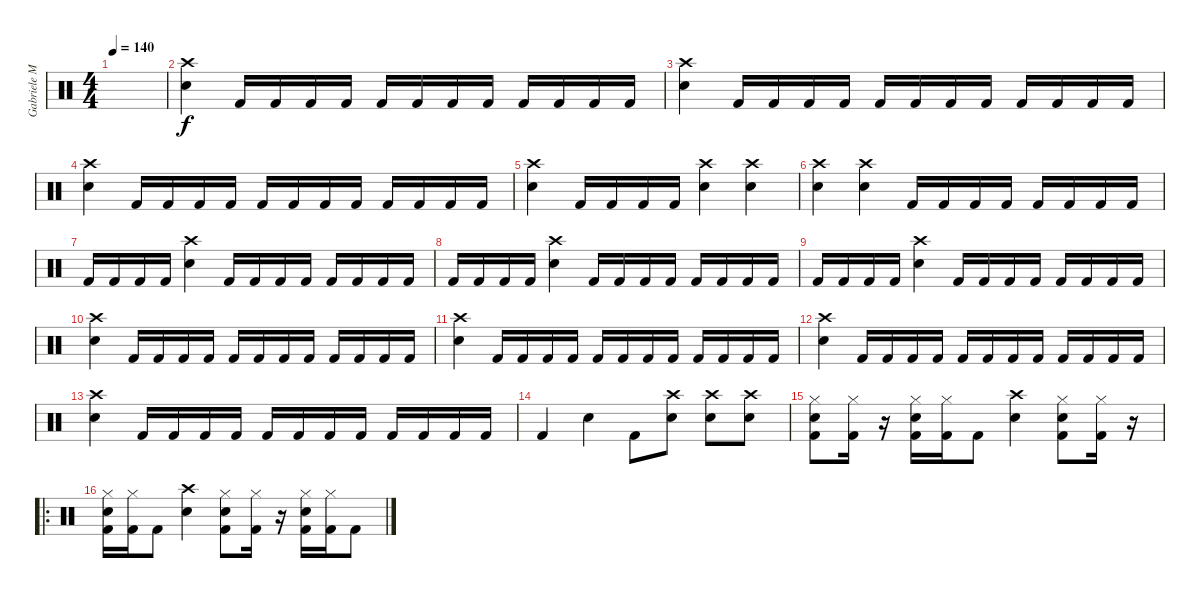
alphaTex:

\track ("Gabriele Malatesta" "Gabriele M") {instrument percussion}
\staff {score}
\articulation defaults
\ts (4 4)
\tempo 140
\clef neutral
\ks c
|
("Crash high (hit)" "Electric Snare (hit)").4 "Kick (hit) 2".16 "Kick (hit) 2".16 "Kick (hit) 2".16 "Kick (hit) 2".16 "Kick (hit) 2".16 "Kick (hit) 2".16 "Kick (hit) 2".16 "Kick (hit) 2".16 "Kick (hit) 2".16 "Kick (hit) 2".16 "Kick (hit) 2".16 "Kick (hit) 2".16 |
("Crash high (hit)" "Electric Snare (hit)").4 "Kick (hit) 2".16 "Kick (hit) 2".16 "Kick (hit) 2".16 "Kick (hit) 2".16 "Kick (hit) 2".16 "Kick (hit) 2".16 "Kick (hit) 2".16 "Kick (hit) 2".16 "Kick (hit) 2".16 "Kick (hit) 2".16 "Kick (hit) 2".16 "Kick (hit) 2".16 |
("Crash high (hit)" "Electric Snare (hit)").4 "Kick (hit) 2".16 "Kick (hit) 2".16 "Kick (hit) 2".16 "Kick (hit) 2".16 "Kick (hit) 2".16 "Kick (hit) 2".16 "Kick (hit) 2".16 "Kick (hit) 2".16 "Kick (hit) 2".16 "Kick (hit) 2".16 "Kick (hit) 2".16 "Kick (hit) 2".16 |
("Crash high (hit)" "Electric Snare (hit)").4 "Kick (hit) 2".16 "Kick (hit) 2".16 "Kick (hit) 2".16 "Kick (hit) 2".16 ("Crash high (hit)" "Electric Snare (hit)").4 ("Crash high (hit)" "Electric Snare (hit)").4 |
("Crash high (hit)" "Electric Snare (hit)").4 ("Crash high (hit)" "Electric Snare (hit)").4 "Kick (hit) 2".16 "Kick (hit) 2".16 "Kick (hit) 2".16 "Kick (hit) 2".16 "Kick (hit) 2".16 "Kick (hit) 2".16 "Kick (hit) 2".16 "Kick (hit) 2".16 |
"Kick (hit) 2".16 "Kick (hit) 2".16 "Kick (hit) 2".16 "Kick (hit) 2".16 ("Crash high (hit)" "Electric Snare (hit)").4 "Kick (hit) 2".16 "Kick (hit) 2".16 "Kick (hit) 2".16 "Kick (hit) 2".16 "Kick (hit) 2".16 "Kick (hit) 2".16 "Kick (hit) 2".16 "Kick (hit) 2".16 |
"Kick (hit) 2".16 "Kick (hit) 2".16 "Kick (hit) 2".16 "Kick (hit) 2".16 ("Crash high (hit)" "Electric Snare (hit)").4 "Kick (hit) 2".16 "Kick (hit) 2".16 "Kick (hit) 2".16 "Kick (hit) 2".16 "Kick (hit) 2".16 "Kick (hit) 2".16 "Kick (hit) 2".16 "Kick (hit) 2".16 |
"Kick (hit) 2".16 "Kick (hit) 2".16 "Kick (hit) 2".16 "Kick (hit) 2".16 ("Crash high (hit)" "Electric Snare (hit)").4 "Kick (hit) 2".16 "Kick (hit) 2".16 "Kick (hit) 2".16 "Kick (hit) 2".16 "Kick (hit) 2".16 "Kick (hit) 2".16 "Kick (hit) 2".16 "Kick (hit) 2".16 |
("Crash high (hit)" "Electric Snare (hit)").4 "Kick (hit) 2".16 "Kick (hit) 2".16 "Kick (hit) 2".16 "Kick (hit) 2".16 "Kick (hit) 2".16 "Kick (hit) 2".16 "Kick (hit) 2".16 "Kick (hit) 2".16 "Kick (hit) 2".16 "Kick (hit) 2".16 "Kick (hit) 2".16 "Kick (hit) 2".16 |
("Crash high (hit)" "Electric Snare (hit)").4 "Kick (hit) 2".16 "Kick (hit) 2".16 "Kick (hit) 2".16 "Kick (hit) 2".16 "Kick (hit) 2".16 "Kick (hit) 2".16 "Kick (hit) 2".16 "Kick (hit) 2".16 "Kick (hit) 2".16 "Kick (hit) 2".16 "Kick (hit) 2".16 "Kick (hit) 2".16 |
("Crash high (hit)" "Electric Snare (hit)").4 "Kick (hit) 2".16 "Kick (hit) 2".16 "Kick (hit) 2".16 "Kick (hit) 2".16 "Kick (hit) 2".16 "Kick (hit) 2".16 "Kick (hit) 2".16 "Kick (hit) 2".16 "Kick (hit) 2".16 "Kick (hit) 2".16 "Kick (hit) 2".16 "Kick (hit) 2".16 |
("Crash high (hit)" "Electric Snare (hit)").4 "Kick (hit) 2".16 "Kick (hit) 2".16 "Kick (hit) 2".16 "Kick (hit) 2".16 "Kick (hit) 2".16 "Kick (hit) 2".16 "Kick (hit) 2".16 "Kick (hit) 2".16 "Kick (hit) 2".16 "Kick (hit) 2".16 "Kick (hit) 2".16 "Kick (hit) 2".16 |
"Kick (hit) 2".4 "Electric Snare (hit)".4 "Kick (hit) 2".8 ("Crash high (hit)" "Electric Snare (hit)").8 ("Crash high (hit)" "Electric Snare (hit)").8 ("Crash high (hit)" "Electric Snare (hit)").8 |
("Hi-Hat (closed)" "Electric Snare (hit)" "Kick (hit) 2").8 ("Hi-Hat (closed)" "Kick (hit) 2").16 r.16 ("Hi-Hat (closed)" "Electric Snare (hit)" "Kick (hit) 2").16 ("Hi-Hat (closed)" "Kick (hit) 2").16 "Kick (hit) 2".8 ("Crash high (hit)" "Electric Snare (hit)").4 ("Hi-Hat (closed)" "Electric Snare (hit)" "Kick (hit) 2").8 ("Hi-Hat (closed)" "Kick (hit) 2").16 r.16 |
\ro
("Hi-Hat (closed)" "Electric Snare (hit)" "Kick (hit) 2").16 ("Hi-Hat (closed)" "Kick (hit) 2").16 "Kick (hit) 2".8 ("Crash high (hit)" "Electric Snare (hit)").4 ("Hi-Hat (closed)" "Electric Snare (hit)" "Kick (hit) 2").8 ("Hi-Hat (closed)" "Kick (hit) 2").16 r.16 ("Hi-Hat (closed)" "Electric Snare (hit)" "Kick (hit) 2").16 ("Hi-Hat (closed)" "Kick (hit) 2").16 "Kick (hit) 2".8
